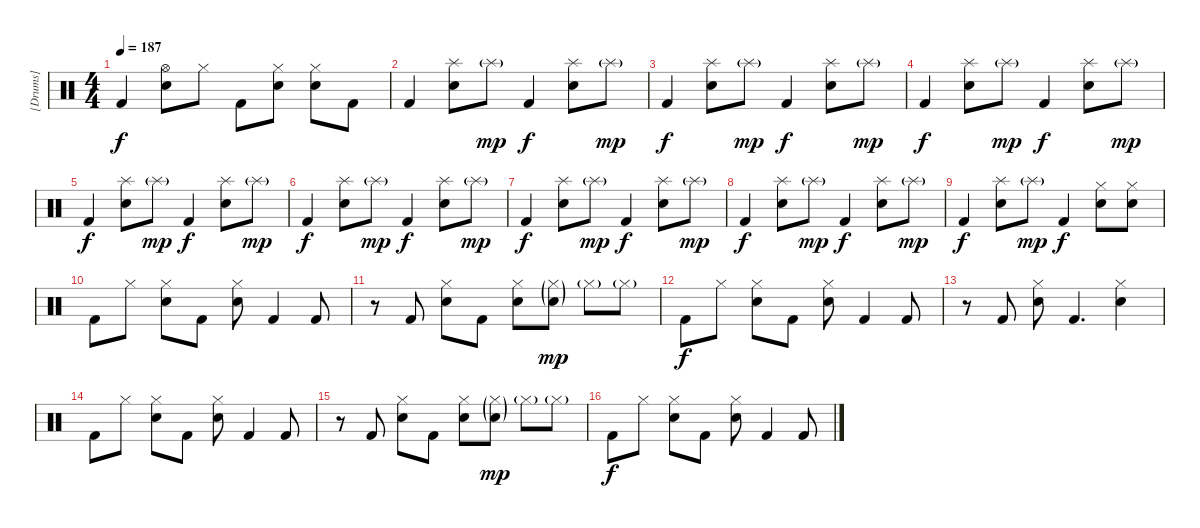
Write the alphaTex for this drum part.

\track ("[Drums]" "[Drums]") {instrument percussion}
\staff {score}
\articulation defaults
\ts (4 4)
\tempo 187
\clef neutral
\ks c "Kick (hit) 2".4{dy f}
("Hi-Hat (open)" "Electric Snare (hit)").8 "Hi-Hat (closed)".8 "Kick (hit) 2".8 ("Hi-Hat (closed)" "Electric Snare (hit)").8 ("Hi-Hat (closed)" "Electric Snare (hit)").8 "Kick (hit) 2".8 |
"Kick (hit) 2".4 ("Splash (hit)" "Electric Snare (hit)").8 "Splash (hit)"{g}.8{dy mp} "Kick (hit) 2".4{dy f} ("Splash (hit)" "Electric Snare (hit)").8 "Splash (hit)"{g}.8{dy mp} |
"Kick (hit) 2".4{dy f} ("Splash (hit)" "Electric Snare (hit)").8 "Splash (hit)"{g}.8{dy mp} "Kick (hit) 2".4{dy f} ("Splash (hit)" "Electric Snare (hit)").8 "Splash (hit)"{g}.8{dy mp} |
"Kick (hit) 2".4{dy f} ("Splash (hit)" "Electric Snare (hit)").8 "Splash (hit)"{g}.8{dy mp} "Kick (hit) 2".4{dy f} ("Splash (hit)" "Electric Snare (hit)").8 "Splash (hit)"{g}.8{dy mp} |
"Kick (hit) 2".4{dy f} ("Splash (hit)" "Electric Snare (hit)").8 "Splash (hit)"{g}.8{dy mp} "Kick (hit) 2".4{dy f} ("Splash (hit)" "Electric Snare (hit)").8 "Splash (hit)"{g}.8{dy mp} |
"Kick (hit) 2".4{dy f} ("Splash (hit)" "Electric Snare (hit)").8 "Splash (hit)"{g}.8{dy mp} "Kick (hit) 2".4{dy f} ("Splash (hit)" "Electric Snare (hit)").8 "Splash (hit)"{g}.8{dy mp} |
"Kick (hit) 2".4{dy f} ("Splash (hit)" "Electric Snare (hit)").8 "Splash (hit)"{g}.8{dy mp} "Kick (hit) 2".4{dy f} ("Splash (hit)" "Electric Snare (hit)").8 "Splash (hit)"{g}.8{dy mp} |
"Kick (hit) 2".4{dy f} ("Splash (hit)" "Electric Snare (hit)").8 "Splash (hit)"{g}.8{dy mp} "Kick (hit) 2".4{dy f} ("Splash (hit)" "Electric Snare (hit)").8 "Splash (hit)"{g}.8{dy mp} |
"Kick (hit) 2".4{dy f} ("Splash (hit)" "Electric Snare (hit)").8 "Splash (hit)"{g}.8{dy mp} "Kick (hit) 2".4{dy f} ("Hi-Hat (closed)" "Electric Snare (hit)").8 ("Hi-Hat (closed)" "Electric Snare (hit)").8 |
"Kick (hit) 2".8 "Hi-Hat (closed)".8 ("Hi-Hat (closed)" "Electric Snare (hit)").8 "Kick (hit) 2".8 ("Hi-Hat (closed)" "Electric Snare (hit)").8 "Kick (hit) 2".4 "Kick (hit) 2".8 |
r.8 "Kick (hit) 2".8 ("Hi-Hat (closed)" "Electric Snare (hit)").8 "Kick (hit) 2".8 ("Hi-Hat (closed)" "Electric Snare (hit)").8 ("Hi-Hat (closed)"{g} "Electric Snare (hit)"{g}).8{dy mp} "Hi-Hat (closed)"{g}.8 "Hi-Hat (closed)"{g}.8 |
"Kick (hit) 2".8{dy f} "Hi-Hat (closed)".8 ("Hi-Hat (closed)" "Electric Snare (hit)").8 "Kick (hit) 2".8 ("Hi-Hat (closed)" "Electric Snare (hit)").8 "Kick (hit) 2".4 "Kick (hit) 2".8 |
r.8 "Kick (hit) 2".8 ("Hi-Hat (closed)" "Electric Snare (hit)").8 "Kick (hit) 2".4{d} ("Hi-Hat (closed)" "Electric Snare (hit)").4 |
"Kick (hit) 2".8 "Hi-Hat (closed)".8 ("Hi-Hat (closed)" "Electric Snare (hit)").8 "Kick (hit) 2".8 ("Hi-Hat (closed)" "Electric Snare (hit)").8 "Kick (hit) 2".4 "Kick (hit) 2".8 |
r.8 "Kick (hit) 2".8 ("Hi-Hat (closed)" "Electric Snare (hit)").8 "Kick (hit) 2".8 ("Hi-Hat (closed)" "Electric Snare (hit)").8 ("Hi-Hat (closed)"{g} "Electric Snare (hit)"{g}).8{dy mp} "Hi-Hat (closed)"{g}.8 "Hi-Hat (closed)"{g}.8 |
"Kick (hit) 2".8{dy f} "Hi-Hat (closed)".8 ("Hi-Hat (closed)" "Electric Snare (hit)").8 "Kick (hit) 2".8 ("Hi-Hat (closed)" "Electric Snare (hit)").8 "Kick (hit) 2".4 "Kick (hit) 2".8
